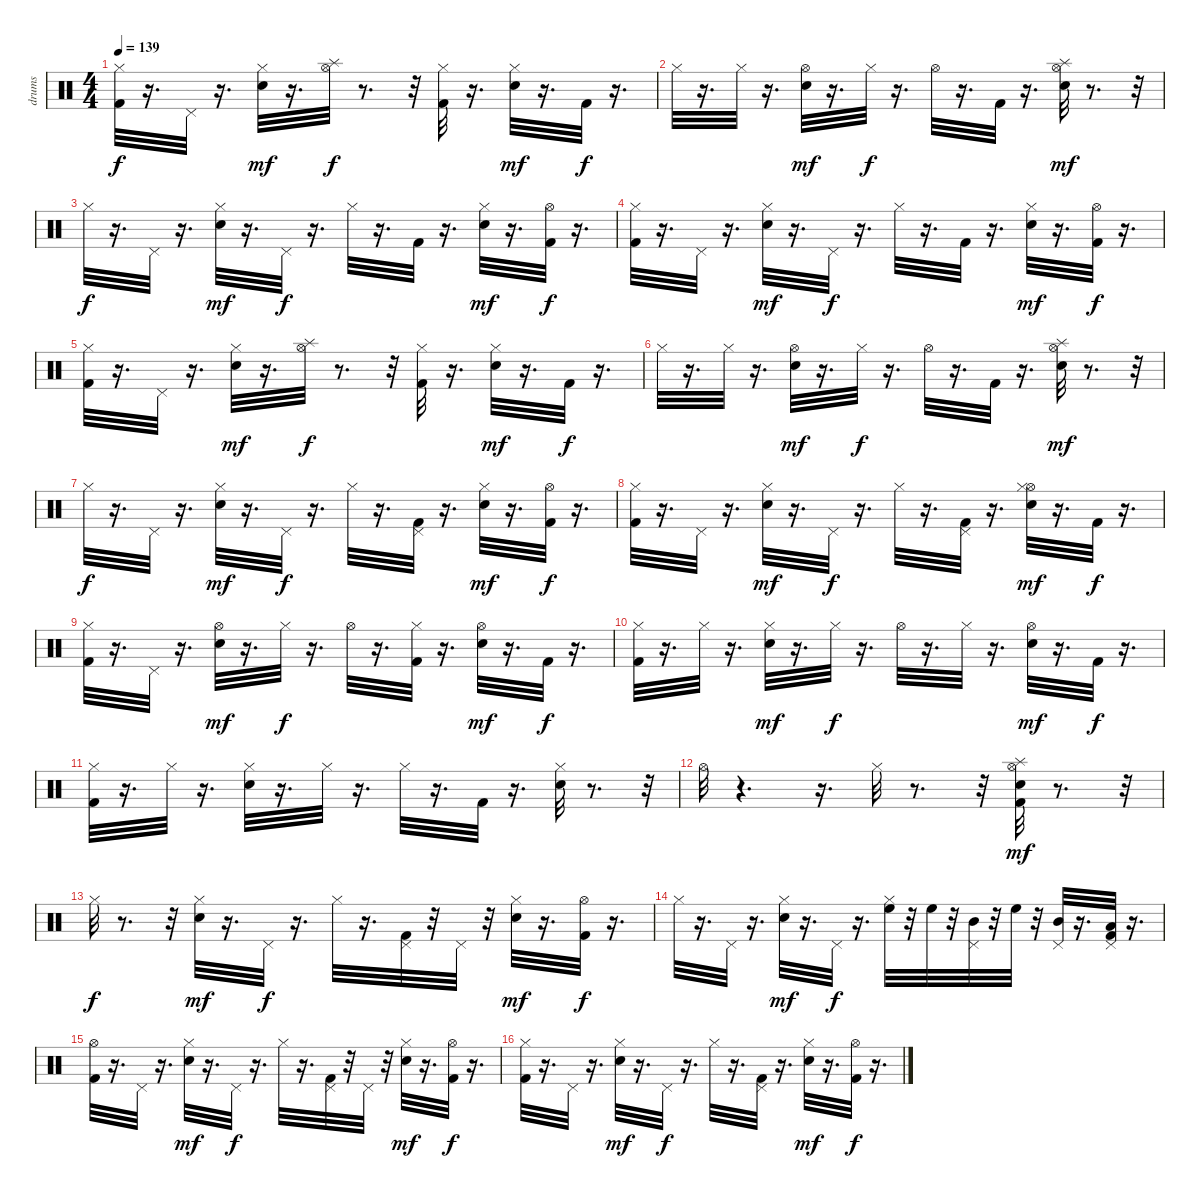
\track ("drums" "drums") {instrument percussion}
\staff {score}
\articulation defaults
\ts (4 4)
\tempo 139
\clef neutral
\ks c
("Hi-Hat (closed)" "Kick (hit) 2").32{dy f} r.16{d} "Pedal Hi-Hat (hit)".32 r.16{d} ("Snare (hit) 2" "Hi-Hat (closed)").32{dy mf} r.16{d} ("Splash (hit)" "Hi-Hat (open)").32{dy f} r.8{d} r.32 ("Kick (hit) 2" "Hi-Hat (closed)").32 r.16{d} ("Hi-Hat (closed)" "Snare (hit) 2").32{dy mf} r.16{d} "Kick (hit) 2".32{dy f} r.16{d} |
"Hi-Hat (closed)".32 r.16{d} "Hi-Hat (closed)".32 r.16{d} ("Hi-Hat (open)" "Snare (hit) 2").32{dy mf} r.16{d} "Hi-Hat (closed)".32{dy f} r.16{d} "Hi-Hat (open)".32 r.16{d} "Kick (hit) 2".32 r.16{d} ("Splash (hit)" "Snare (hit) 2" "Hi-Hat (open)").32{dy mf} r.8{d} r.32 |
"Hi-Hat (closed)".32{dy f} r.16{d} "Pedal Hi-Hat (hit)".32 r.16{d} ("Hi-Hat (closed)" "Snare (hit) 2").32{dy mf} r.16{d} "Pedal Hi-Hat (hit)".32{dy f} r.16{d} "Hi-Hat (closed)".32 r.16{d} "Kick (hit) 2".32 r.16{d} ("Hi-Hat (closed)" "Snare (hit) 2").32{dy mf} r.16{d} ("Kick (hit) 2" "Hi-Hat (open)").32{dy f} r.16{d} |
("Kick (hit) 2" "Hi-Hat (closed)").32 r.16{d} "Pedal Hi-Hat (hit)".32 r.16{d} ("Snare (hit) 2" "Hi-Hat (closed)").32{dy mf} r.16{d} "Pedal Hi-Hat (hit)".32{dy f} r.16{d} "Hi-Hat (closed)".32 r.16{d} "Kick (hit) 2".32 r.16{d} ("Snare (hit) 2" "Hi-Hat (closed)").32{dy mf} r.16{d} ("Kick (hit) 2" "Hi-Hat (open)").32{dy f} r.16{d} |
("Hi-Hat (closed)" "Kick (hit) 2").32 r.16{d} "Pedal Hi-Hat (hit)".32 r.16{d} ("Snare (hit) 2" "Hi-Hat (closed)").32{dy mf} r.16{d} ("Hi-Hat (open)" "Splash (hit)").32{dy f} r.8{d} r.32 ("Hi-Hat (closed)" "Kick (hit) 2").32 r.16{d} ("Hi-Hat (closed)" "Snare (hit) 2").32{dy mf} r.16{d} "Kick (hit) 2".32{dy f} r.16{d} |
"Hi-Hat (closed)".32 r.16{d} "Hi-Hat (closed)".32 r.16{d} ("Hi-Hat (open)" "Snare (hit) 2").32{dy mf} r.16{d} "Hi-Hat (closed)".32{dy f} r.16{d} "Hi-Hat (open)".32 r.16{d} "Kick (hit) 2".32 r.16{d} ("Hi-Hat (open)" "Snare (hit) 2" "Splash (hit)").32{dy mf} r.8{d} r.32 |
"Hi-Hat (closed)".32{dy f} r.16{d} "Pedal Hi-Hat (hit)".32 r.16{d} ("Snare (hit) 2" "Hi-Hat (closed)").32{dy mf} r.16{d} "Pedal Hi-Hat (hit)".32{dy f} r.16{d} "Hi-Hat (closed)".32 r.16{d} ("Pedal Hi-Hat (hit)" "Kick (hit) 2").32 r.16{d} ("Hi-Hat (closed)" "Snare (hit) 2").32{dy mf} r.16{d} ("Kick (hit) 2" "Hi-Hat (open)").32{dy f} r.16{d} |
("Hi-Hat (closed)" "Kick (hit) 2").32 r.16{d} "Pedal Hi-Hat (hit)".32 r.16{d} ("Snare (hit) 2" "Hi-Hat (closed)").32{dy mf} r.16{d} "Pedal Hi-Hat (hit)".32{dy f} r.16{d} "Hi-Hat (closed)".32 r.16{d} ("Kick (hit) 2" "Pedal Hi-Hat (hit)").32 r.16{d} ("Snare (hit) 2" "Hi-Hat (open)" "Hi-Hat (closed)").32{dy mf} r.16{d} "Kick (hit) 2".32{dy f} r.16{d} |
("Hi-Hat (closed)" "Kick (hit) 2").32 r.16{d} "Pedal Hi-Hat (hit)".32 r.16{d} ("Hi-Hat (open)" "Snare (hit) 2").32{dy mf} r.16{d} "Hi-Hat (closed)".32{dy f} r.16{d} "Hi-Hat (open)".32 r.16{d} ("Kick (hit) 2" "Hi-Hat (closed)").32 r.16{d} ("Hi-Hat (open)" "Snare (hit) 2").32{dy mf} r.16{d} "Kick (hit) 2".32{dy f} r.16{d} |
("Kick (hit) 2" "Hi-Hat (closed)").32 r.16{d} "Hi-Hat (closed)".32 r.16{d} ("Hi-Hat (closed)" "Snare (hit) 2").32{dy mf} r.16{d} "Hi-Hat (closed)".32{dy f} r.16{d} "Hi-Hat (open)".32 r.16{d} "Hi-Hat (closed)".32 r.16{d} ("Snare (hit) 2" "Hi-Hat (open)").32{dy mf} r.16{d} "Kick (hit) 2".32{dy f} r.16{d} |
("Kick (hit) 2" "Hi-Hat (closed)").32 r.16{d} "Hi-Hat (closed)".32 r.16{d} ("Hi-Hat (closed)" "Snare (hit) 2").32 r.16{d} "Hi-Hat (closed)".32 r.16{d} "Hi-Hat (closed)".32 r.16{d} "Kick (hit) 2".32 r.16{d} ("Hi-Hat (closed)" "Snare (hit) 2").32 r.8{d} r.32 |
"Hi-Hat (open)".32 r.4{d} r.16{d} "Hi-Hat (closed)".32 r.8{d} r.32 ("Hi-Hat (open)" "Splash (hit)" "Snare (hit) 2" "Kick (hit) 2").32{dy mf} r.8{d} r.32 |
"Hi-Hat (closed)".32{dy f} r.8{d} r.32 ("Hi-Hat (closed)" "Snare (hit) 2").32{dy mf} r.16{d} "Pedal Hi-Hat (hit)".32{dy f} r.16{d} "Hi-Hat (closed)".32 r.16{d} ("Pedal Hi-Hat (hit)" "Kick (hit) 2").32 r.32 "Pedal Hi-Hat (hit)".32 r.32 ("Snare (hit) 2" "Hi-Hat (closed)").32{dy mf} r.16{d} ("Kick (hit) 2" "Hi-Hat (open)").32{dy f} r.16{d} |
"Hi-Hat (closed)".32 r.16{d} "Pedal Hi-Hat (hit)".32 r.16{d} ("Snare (hit) 2" "Hi-Hat (closed)").32{dy mf} r.16{d} "Pedal Hi-Hat (hit)".32{dy f} r.16{d} ("High Floor Tom (hit)" "Hi-Hat (closed)").32 r.32 "High Floor Tom (hit)".32 r.32 ("Pedal Hi-Hat (hit)" "Mid Tom (hit)").32 r.32 "High Floor Tom (hit)".32 r.32 ("Mid Tom (hit)" "Pedal Hi-Hat (hit)").32 r.16{d} ("Low Tom (hit)" "Pedal Hi-Hat (hit)" "Kick (hit) 2").32 r.16{d} |
("Kick (hit) 2" "Hi-Hat (open)").32 r.16{d} "Pedal Hi-Hat (hit)".32 r.16{d} ("Snare (hit) 2" "Hi-Hat (closed)").32{dy mf} r.16{d} "Pedal Hi-Hat (hit)".32{dy f} r.16{d} "Hi-Hat (closed)".32 r.16{d} ("Pedal Hi-Hat (hit)" "Kick (hit) 2").32 r.32 "Pedal Hi-Hat (hit)".32 r.32 ("Hi-Hat (closed)" "Snare (hit) 2").32{dy mf} r.16{d} ("Kick (hit) 2" "Hi-Hat (open)").32{dy f} r.16{d} |
("Hi-Hat (closed)" "Kick (hit) 2").32 r.16{d} "Pedal Hi-Hat (hit)".32 r.16{d} ("Hi-Hat (closed)" "Snare (hit) 2").32{dy mf} r.16{d} "Pedal Hi-Hat (hit)".32{dy f} r.16{d} "Hi-Hat (closed)".32 r.16{d} ("Pedal Hi-Hat (hit)" "Kick (hit) 2").32 r.16{d} ("Snare (hit) 2" "Hi-Hat (closed)").32{dy mf} r.16{d} ("Hi-Hat (open)" "Kick (hit) 2").32{dy f} r.16{d}
